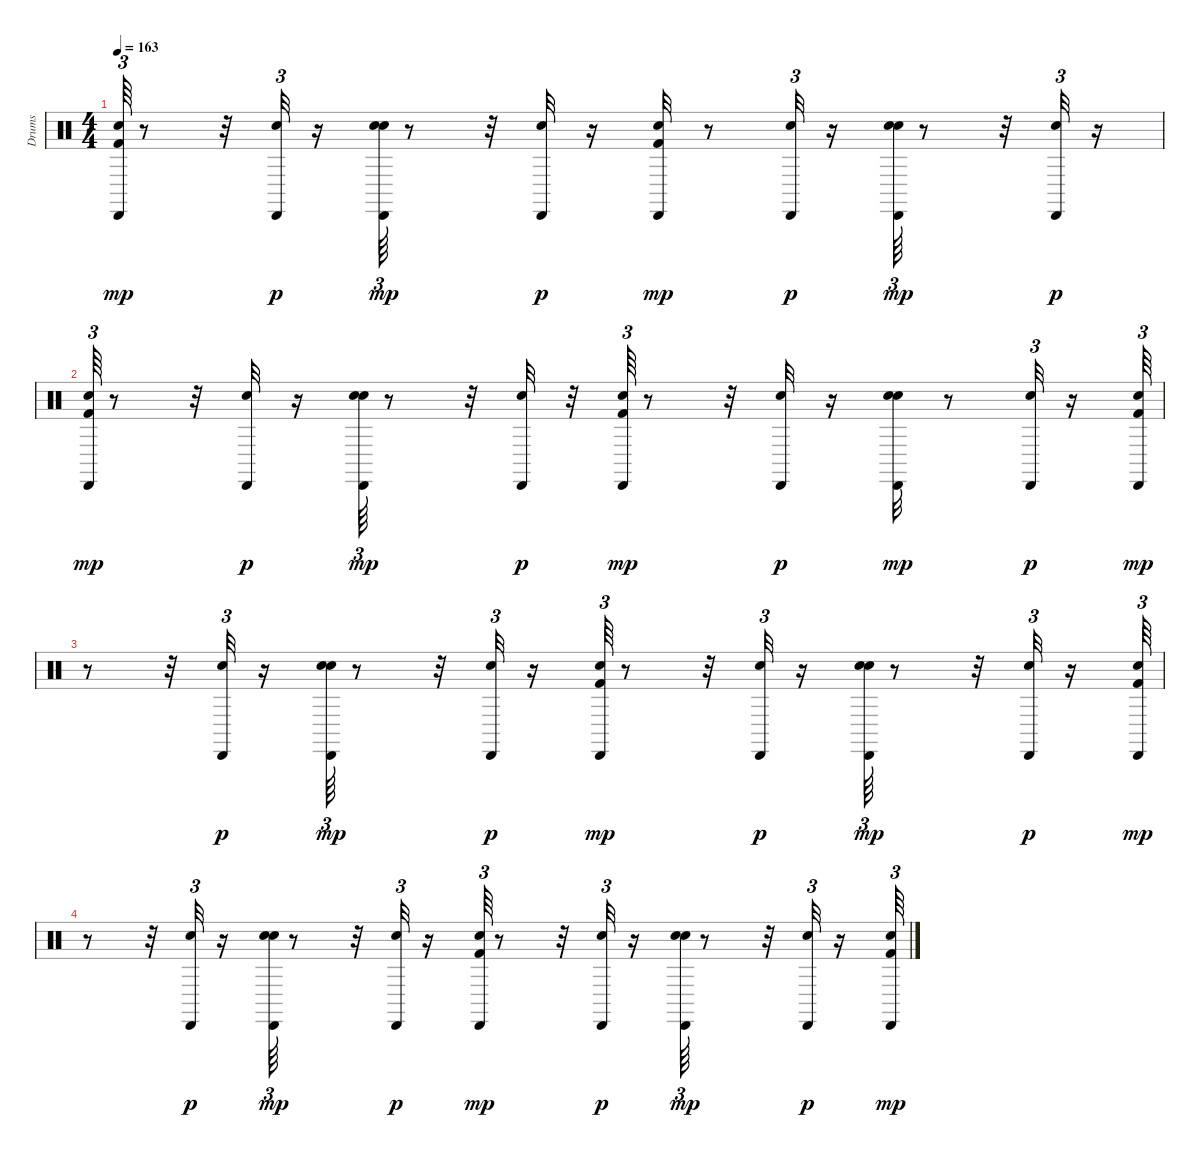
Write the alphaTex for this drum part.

\track ("Drums               " "Drums     ") {instrument percussion}
\staff {score}
\articulation defaults
\ts (4 4)
\tempo 163
\clef neutral
\ks c
("Kick (hit) 2" "Snare (hit) 2" "Cabasa (hit)").64{tu (3 2) dy mp} r.8 r.32 ("Snare (hit) 2" "Cabasa (hit)").32{tu (3 2) dy p} r.16 ("Snare (hit) 2" "Hand Clap (hit)" "Cabasa (hit)").64{tu (3 2) dy mp} r.8 r.32 ("Snare (hit) 2" "Cabasa (hit)").32{dy p} r.16 ("Kick (hit) 2" "Snare (hit) 2" "Cabasa (hit)").32{dy mp} r.8 ("Snare (hit) 2" "Cabasa (hit)").32{tu (3 2) dy p} r.16 ("Snare (hit) 2" "Hand Clap (hit)" "Cabasa (hit)").64{tu (3 2) dy mp} r.8 r.32 ("Snare (hit) 2" "Cabasa (hit)").32{tu (3 2) dy p} r.16 |
("Kick (hit) 2" "Snare (hit) 2" "Cabasa (hit)").64{tu (3 2) dy mp} r.8 r.32 ("Snare (hit) 2" "Cabasa (hit)").32{dy p} r.16 ("Snare (hit) 2" "Hand Clap (hit)" "Cabasa (hit)").64{tu (3 2) dy mp} r.8 r.32 ("Snare (hit) 2" "Cabasa (hit)").32{dy p} r.32 ("Kick (hit) 2" "Snare (hit) 2" "Cabasa (hit)").64{tu (3 2) dy mp} r.8 r.32 ("Snare (hit) 2" "Cabasa (hit)").32{dy p} r.16 ("Snare (hit) 2" "Hand Clap (hit)" "Cabasa (hit)").32{dy mp} r.8 ("Snare (hit) 2" "Cabasa (hit)").32{tu (3 2) dy p} r.16 ("Kick (hit) 2" "Snare (hit) 2" "Cabasa (hit)").64{tu (3 2) dy mp} |
r.8 r.32 ("Snare (hit) 2" "Cabasa (hit)").32{tu (3 2) dy p} r.16 ("Snare (hit) 2" "Hand Clap (hit)" "Cabasa (hit)").64{tu (3 2) dy mp} r.8 r.32 ("Snare (hit) 2" "Cabasa (hit)").32{tu (3 2) dy p} r.16 ("Kick (hit) 2" "Snare (hit) 2" "Cabasa (hit)").64{tu (3 2) dy mp} r.8 r.32 ("Snare (hit) 2" "Cabasa (hit)").32{tu (3 2) dy p} r.16 ("Snare (hit) 2" "Hand Clap (hit)" "Cabasa (hit)").64{tu (3 2) dy mp} r.8 r.32 ("Snare (hit) 2" "Cabasa (hit)").32{tu (3 2) dy p} r.16 ("Kick (hit) 2" "Snare (hit) 2" "Cabasa (hit)").64{tu (3 2) dy mp} |
r.8 r.32 ("Snare (hit) 2" "Cabasa (hit)").32{tu (3 2) dy p} r.16 ("Snare (hit) 2" "Hand Clap (hit)" "Cabasa (hit)").64{tu (3 2) dy mp} r.8 r.32 ("Snare (hit) 2" "Cabasa (hit)").32{tu (3 2) dy p} r.16 ("Kick (hit) 2" "Snare (hit) 2" "Cabasa (hit)").64{tu (3 2) dy mp} r.8 r.32 ("Snare (hit) 2" "Cabasa (hit)").32{tu (3 2) dy p} r.16 ("Snare (hit) 2" "Hand Clap (hit)" "Cabasa (hit)").64{tu (3 2) dy mp} r.8 r.32 ("Snare (hit) 2" "Cabasa (hit)").32{tu (3 2) dy p} r.16 ("Kick (hit) 2" "Snare (hit) 2" "Cabasa (hit)").64{tu (3 2) dy mp}
